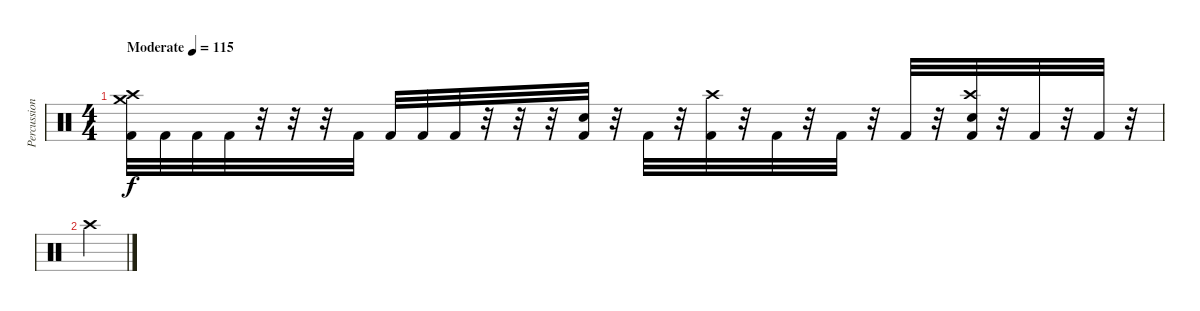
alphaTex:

\track ("Percussion" "Percussion") {instrument percussion}
\staff {score}
\articulation defaults
\ts (4 4)
\tempo (115 "Moderate")
\clef neutral
\ks c
("Kick (hit) 2" "Crash medium (hit)" "Crash high (hit)").32{dy f} "Kick (hit) 2".32 "Kick (hit) 2".32 "Kick (hit) 2".32 r.32 r.32 r.32 "Kick (hit) 2".32 "Kick (hit) 2".32 "Kick (hit) 2".32 "Kick (hit) 2".32 r.32 r.32 r.32 ("Kick (hit) 2" "Snare (hit) 2").32 r.32 "Kick (hit) 2".32 r.32 ("Kick (hit) 2" "Crash high (hit)").32 r.32 "Kick (hit) 2".32 r.32 "Kick (hit) 2".32 r.32 "Kick (hit) 2".32 r.32 ("Kick (hit) 2" "Snare (hit) 2" "Crash high (hit)").32 r.32 "Kick (hit) 2".32 r.32 "Kick (hit) 2".32 r.32 |
"Crash high (hit)".4
